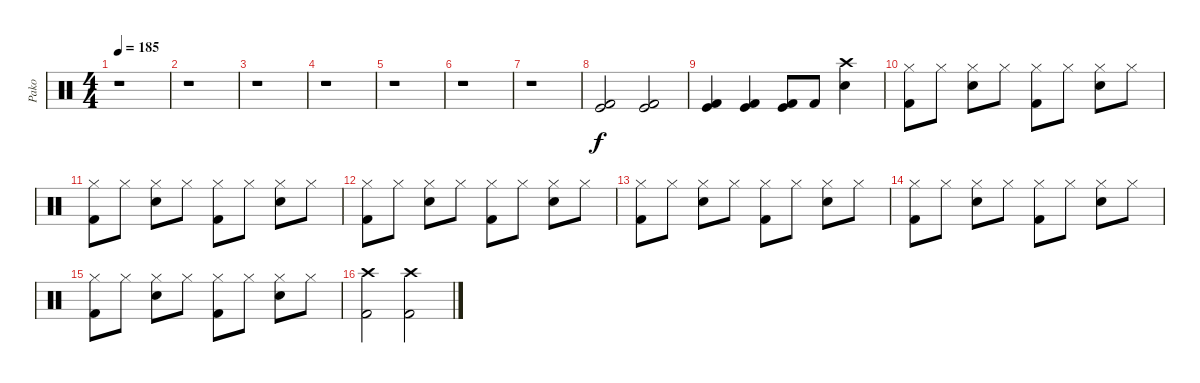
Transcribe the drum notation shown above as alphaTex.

\track ("Pako" "Pako") {instrument percussion}
\staff {score}
\articulation defaults
\ts (4 4)
\tempo 185
\clef neutral
\ks c
r.1{dy f} |
r.1 |
r.1 |
r.1 |
r.1 |
r.1 |
r.1 |
("Kick (hit)" "Kick (hit) 2").2 ("Kick (hit)" "Kick (hit) 2").2 |
("Kick (hit)" "Kick (hit) 2").4 ("Kick (hit)" "Kick (hit) 2").4 ("Kick (hit)" "Kick (hit) 2").8 "Kick (hit) 2".8 ("Crash high (hit)" "Snare (hit) 2").4 |
("Hi-Hat (closed)" "Kick (hit) 2").8 "Hi-Hat (closed)".8 ("Hi-Hat (closed)" "Snare (hit) 2").8 "Hi-Hat (closed)".8 ("Hi-Hat (closed)" "Kick (hit) 2").8 "Hi-Hat (closed)".8 ("Hi-Hat (closed)" "Snare (hit) 2").8 "Hi-Hat (closed)".8 |
("Hi-Hat (closed)" "Kick (hit) 2").8 "Hi-Hat (closed)".8 ("Hi-Hat (closed)" "Snare (hit) 2").8 "Hi-Hat (closed)".8 ("Hi-Hat (closed)" "Kick (hit) 2").8 "Hi-Hat (closed)".8 ("Hi-Hat (closed)" "Snare (hit) 2").8 "Hi-Hat (closed)".8 |
("Hi-Hat (closed)" "Kick (hit) 2").8 "Hi-Hat (closed)".8 ("Hi-Hat (closed)" "Snare (hit) 2").8 "Hi-Hat (closed)".8 ("Hi-Hat (closed)" "Kick (hit) 2").8 "Hi-Hat (closed)".8 ("Hi-Hat (closed)" "Snare (hit) 2").8 "Hi-Hat (closed)".8 |
("Hi-Hat (closed)" "Kick (hit) 2").8 "Hi-Hat (closed)".8 ("Hi-Hat (closed)" "Snare (hit) 2").8 "Hi-Hat (closed)".8 ("Hi-Hat (closed)" "Kick (hit) 2").8 "Hi-Hat (closed)".8 ("Hi-Hat (closed)" "Snare (hit) 2").8 "Hi-Hat (closed)".8 |
("Hi-Hat (closed)" "Kick (hit) 2").8 "Hi-Hat (closed)".8 ("Hi-Hat (closed)" "Snare (hit) 2").8 "Hi-Hat (closed)".8 ("Hi-Hat (closed)" "Kick (hit) 2").8 "Hi-Hat (closed)".8 ("Hi-Hat (closed)" "Snare (hit) 2").8 "Hi-Hat (closed)".8 |
("Hi-Hat (closed)" "Kick (hit) 2").8 "Hi-Hat (closed)".8 ("Hi-Hat (closed)" "Snare (hit) 2").8 "Hi-Hat (closed)".8 ("Hi-Hat (closed)" "Kick (hit) 2").8 "Hi-Hat (closed)".8 ("Hi-Hat (closed)" "Snare (hit) 2").8 "Hi-Hat (closed)".8 |
("Crash high (hit)" "Kick (hit) 2").2 ("Crash high (hit)" "Kick (hit) 2").2
